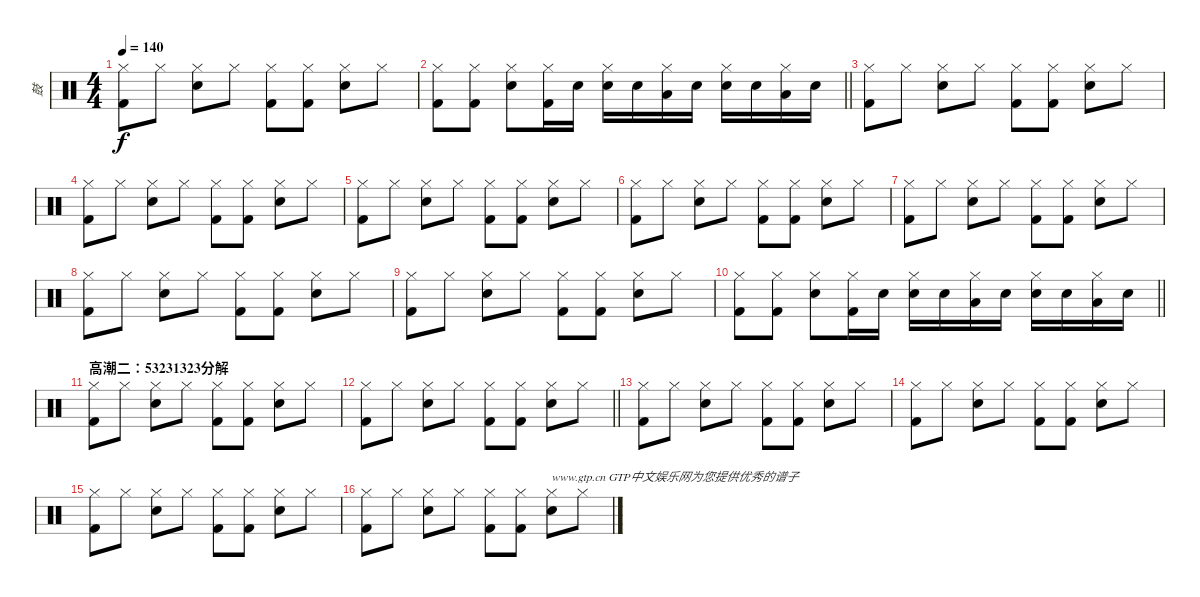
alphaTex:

\track ("鼓" "鼓") {instrument percussion}
\staff {score}
\articulation defaults
\ts (4 4)
\section ("" "")
\tempo 140
\clef neutral
\ks c
("Hi-Hat (closed)" "Kick (hit) 2").8{dy f} "Hi-Hat (closed)".8 ("Hi-Hat (closed)" "Snare (hit) 2").8 "Hi-Hat (closed)".8 ("Hi-Hat (closed)" "Kick (hit) 2").8 ("Hi-Hat (closed)" "Kick (hit) 2").8 ("Hi-Hat (closed)" "Snare (hit) 2").8 "Hi-Hat (closed)".8 |
\barLineRight lightlight
("Hi-Hat (closed)" "Kick (hit) 2").8 ("Hi-Hat (closed)" "Kick (hit) 2").8 ("Hi-Hat (closed)" "Snare (hit) 2").8 ("Hi-Hat (closed)" "Kick (hit) 2").16 "Snare (hit) 2".16 ("Hi-Hat (closed)" "Snare (hit) 2").16 "Snare (hit) 2".16 ("Hi-Hat (closed)" "Low Tom (hit)").16 "Snare (hit) 2".16 ("Hi-Hat (closed)" "Snare (hit) 2").16 "Snare (hit) 2".16 ("Hi-Hat (closed)" "Low Tom (hit)").16 "Snare (hit) 2".16 |
\section ("" "")
("Hi-Hat (closed)" "Kick (hit) 2").8 "Hi-Hat (closed)".8 ("Hi-Hat (closed)" "Snare (hit) 2").8 "Hi-Hat (closed)".8 ("Hi-Hat (closed)" "Kick (hit) 2").8 ("Hi-Hat (closed)" "Kick (hit) 2").8 ("Hi-Hat (closed)" "Snare (hit) 2").8 "Hi-Hat (closed)".8 |
("Hi-Hat (closed)" "Kick (hit) 2").8 "Hi-Hat (closed)".8 ("Hi-Hat (closed)" "Snare (hit) 2").8 "Hi-Hat (closed)".8 ("Hi-Hat (closed)" "Kick (hit) 2").8 ("Hi-Hat (closed)" "Kick (hit) 2").8 ("Hi-Hat (closed)" "Snare (hit) 2").8 "Hi-Hat (closed)".8 |
("Hi-Hat (closed)" "Kick (hit) 2").8 "Hi-Hat (closed)".8 ("Hi-Hat (closed)" "Snare (hit) 2").8 "Hi-Hat (closed)".8 ("Hi-Hat (closed)" "Kick (hit) 2").8 ("Hi-Hat (closed)" "Kick (hit) 2").8 ("Hi-Hat (closed)" "Snare (hit) 2").8 "Hi-Hat (closed)".8 |
("Hi-Hat (closed)" "Kick (hit) 2").8 "Hi-Hat (closed)".8 ("Hi-Hat (closed)" "Snare (hit) 2").8 "Hi-Hat (closed)".8 ("Hi-Hat (closed)" "Kick (hit) 2").8 ("Hi-Hat (closed)" "Kick (hit) 2").8 ("Hi-Hat (closed)" "Snare (hit) 2").8 "Hi-Hat (closed)".8 |
("Hi-Hat (closed)" "Kick (hit) 2").8 "Hi-Hat (closed)".8 ("Hi-Hat (closed)" "Snare (hit) 2").8 "Hi-Hat (closed)".8 ("Hi-Hat (closed)" "Kick (hit) 2").8 ("Hi-Hat (closed)" "Kick (hit) 2").8 ("Hi-Hat (closed)" "Snare (hit) 2").8 "Hi-Hat (closed)".8 |
("Hi-Hat (closed)" "Kick (hit) 2").8 "Hi-Hat (closed)".8 ("Hi-Hat (closed)" "Snare (hit) 2").8 "Hi-Hat (closed)".8 ("Hi-Hat (closed)" "Kick (hit) 2").8 ("Hi-Hat (closed)" "Kick (hit) 2").8 ("Hi-Hat (closed)" "Snare (hit) 2").8 "Hi-Hat (closed)".8 |
("Hi-Hat (closed)" "Kick (hit) 2").8 "Hi-Hat (closed)".8 ("Hi-Hat (closed)" "Snare (hit) 2").8 "Hi-Hat (closed)".8 ("Hi-Hat (closed)" "Kick (hit) 2").8 ("Hi-Hat (closed)" "Kick (hit) 2").8 ("Hi-Hat (closed)" "Snare (hit) 2").8 "Hi-Hat (closed)".8 |
\barLineRight lightlight
("Hi-Hat (closed)" "Kick (hit) 2").8 ("Hi-Hat (closed)" "Kick (hit) 2").8 ("Hi-Hat (closed)" "Snare (hit) 2").8 ("Hi-Hat (closed)" "Kick (hit) 2").16 "Snare (hit) 2".16 ("Hi-Hat (closed)" "Snare (hit) 2").16 "Snare (hit) 2".16 ("Hi-Hat (closed)" "Low Tom (hit)").16 "Snare (hit) 2".16 ("Hi-Hat (closed)" "Snare (hit) 2").16 "Snare (hit) 2".16 ("Hi-Hat (closed)" "Low Tom (hit)").16 "Snare (hit) 2".16 |
\section ("" "高潮二：53231323分解")
("Hi-Hat (closed)" "Kick (hit) 2").8 "Hi-Hat (closed)".8 ("Hi-Hat (closed)" "Snare (hit) 2").8 "Hi-Hat (closed)".8 ("Hi-Hat (closed)" "Kick (hit) 2").8 ("Hi-Hat (closed)" "Kick (hit) 2").8 ("Hi-Hat (closed)" "Snare (hit) 2").8 "Hi-Hat (closed)".8 |
\barLineRight lightlight
("Hi-Hat (closed)" "Kick (hit) 2").8 "Hi-Hat (closed)".8 ("Hi-Hat (closed)" "Snare (hit) 2").8 "Hi-Hat (closed)".8 ("Hi-Hat (closed)" "Kick (hit) 2").8 ("Hi-Hat (closed)" "Kick (hit) 2").8 ("Hi-Hat (closed)" "Snare (hit) 2").8 "Hi-Hat (closed)".8 |
\section ("" "")
("Hi-Hat (closed)" "Kick (hit) 2").8 "Hi-Hat (closed)".8 ("Hi-Hat (closed)" "Snare (hit) 2").8 "Hi-Hat (closed)".8 ("Hi-Hat (closed)" "Kick (hit) 2").8 ("Hi-Hat (closed)" "Kick (hit) 2").8 ("Hi-Hat (closed)" "Snare (hit) 2").8 "Hi-Hat (closed)".8 |
("Hi-Hat (closed)" "Kick (hit) 2").8 "Hi-Hat (closed)".8 ("Hi-Hat (closed)" "Snare (hit) 2").8 "Hi-Hat (closed)".8 ("Hi-Hat (closed)" "Kick (hit) 2").8 ("Hi-Hat (closed)" "Kick (hit) 2").8 ("Hi-Hat (closed)" "Snare (hit) 2").8 "Hi-Hat (closed)".8 |
("Hi-Hat (closed)" "Kick (hit) 2").8 "Hi-Hat (closed)".8 ("Hi-Hat (closed)" "Snare (hit) 2").8 "Hi-Hat (closed)".8 ("Hi-Hat (closed)" "Kick (hit) 2").8 ("Hi-Hat (closed)" "Kick (hit) 2").8 ("Hi-Hat (closed)" "Snare (hit) 2").8 "Hi-Hat (closed)".8 |
("Hi-Hat (closed)" "Kick (hit) 2").8 "Hi-Hat (closed)".8 ("Hi-Hat (closed)" "Snare (hit) 2").8 "Hi-Hat (closed)".8 ("Hi-Hat (closed)" "Kick (hit) 2").8 ("Hi-Hat (closed)" "Kick (hit) 2").8 ("Hi-Hat (closed)" "Snare (hit) 2").8{txt "www.gtp.cn GTP中文娱乐网为您提供优秀的谱子"} "Hi-Hat (closed)".8
